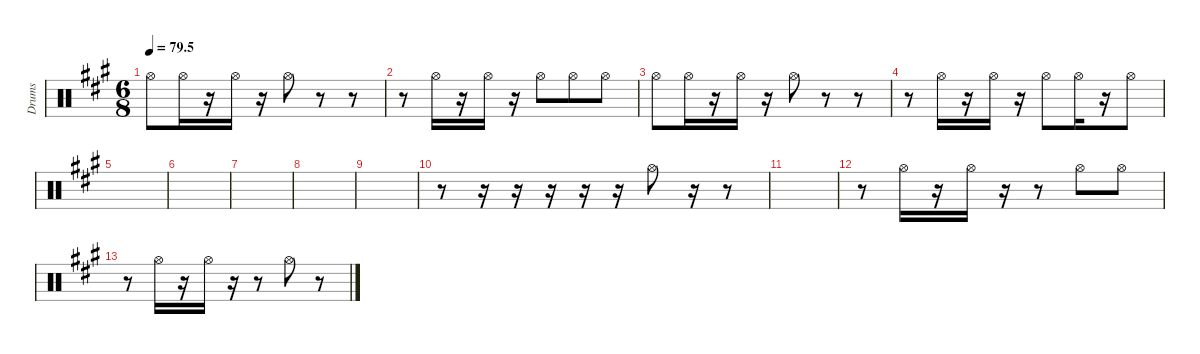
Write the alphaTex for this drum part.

\defaultSystemsLayout 4
\hideDynamics
\bracketExtendMode nobrackets
\otherSystemsTrackNameOrientation horizontal
\track ("Hihat" "Drums") {instrument percussion}
\staff {score}
\articulation defaults
\ts (6 8)
\tempo
79.5
\accidentals auto
\clef neutral
\ottava regular
\simile none
\scale
0.333333
\ks a "Hi-Hat (open)"{acc forcenatural}.8{dy f} "Hi-Hat (open)"{acc forcenatural}.16
r.16 "Hi-Hat (open)"{acc forcenatural}.16 r.16 "Hi-Hat (open)"{acc forcenatural}.8 r.8 r.8 |
\scale
0.333333 r.8 "Hi-Hat (open)"{acc forcenatural}.16 r.16 "Hi-Hat (open)"{acc forcenatural}.16 r.16 "Hi-Hat (open)"{acc forcenatural}.8 "Hi-Hat (open)"{acc forcenatural}.8 "Hi-Hat (open)"{acc forcenatural}.8 |
\scale
0.333333 "Hi-Hat (open)"{acc forcenatural}.8 "Hi-Hat (open)"{acc forcenatural}.16 r.16 "Hi-Hat (open)"{acc forcenatural}.16 r.16 "Hi-Hat (open)"{acc forcenatural}.8 r.8 r.8 |
\scale
0.333333 r.8 "Hi-Hat (open)"{acc forcenatural}.16 r.16 "Hi-Hat (open)"{acc forcenatural}.16 r.16 "Hi-Hat (open)"{acc forcenatural}.8 "Hi-Hat (open)"{acc forcenatural}.16 r.16 "Hi-Hat (open)"{acc forcenatural}.8 |
\scale
0.333333 |
\scale
0.333333 |
\scale
0.333333 |
\scale
0.333333 |
\scale
0.333333 |
\scale
0.333333 r.8 r.16 r.16 r.16 r.16 r.16 "Hi-Hat (open)"{acc forcenatural}.8 r.16 r.8 |
\scale
0.333333 |
\scale
0.333333 r.8 "Hi-Hat (open)"{acc forcenatural}.16 r.16 "Hi-Hat (open)"{acc forcenatural}.16 r.16 r.8 "Hi-Hat (open)"{acc forcenatural}.8 "Hi-Hat (open)"{acc forcenatural}.8 |
\scale
0.333333 r.8 "Hi-Hat (open)"{acc forcenatural}.16 r.16 "Hi-Hat (open)"{acc forcenatural}.16 r.16 r.8 "Hi-Hat (open)"{acc forcenatural}.8 r.8 |
\scale
0.333333 |
\scale
0.333333 |
\scale
0.333333
